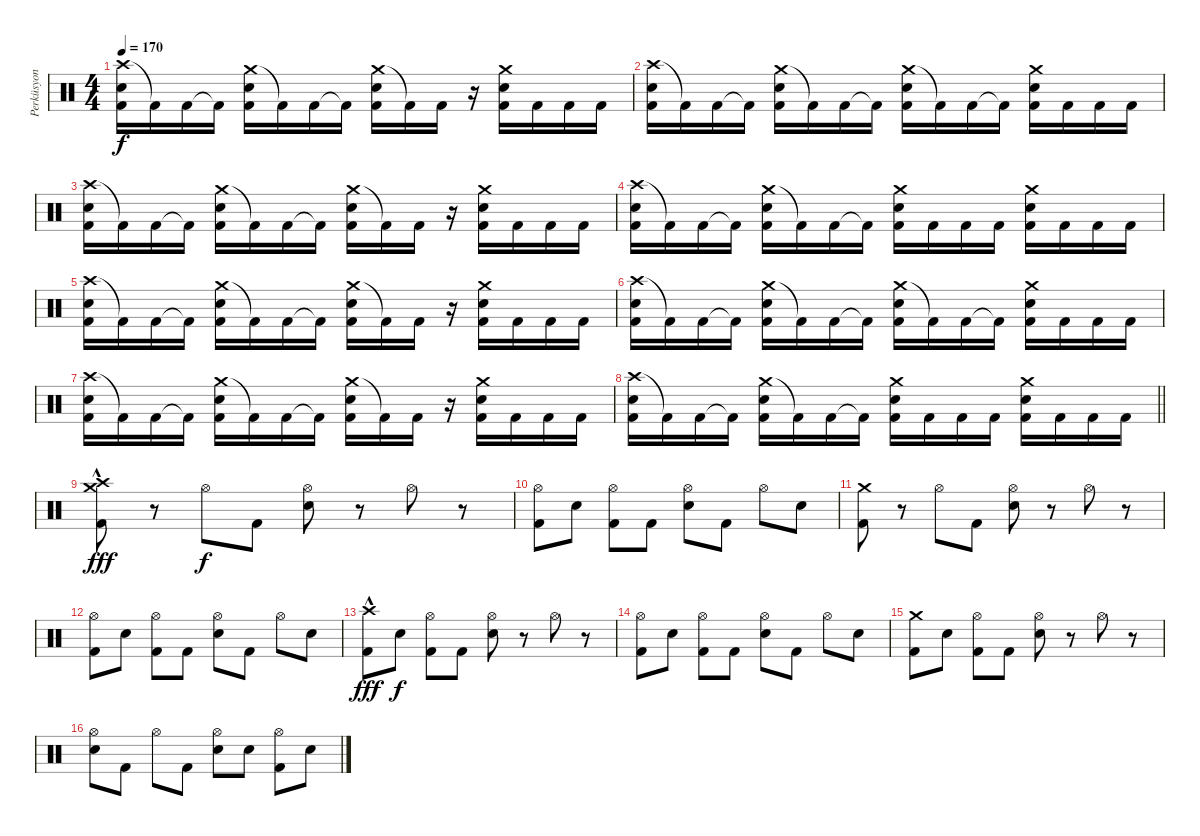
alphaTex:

\track ("Perküsyon" "Perküsyon") {instrument percussion}
\staff {score}
\articulation defaults
\ts (4 4)
\tempo 170
\clef neutral
\ks c
("Crash high (hit)" "Snare (hit) 2" "Kick (hit) 2").16{dy f} "Kick (hit) 2"{t}.16 "Kick (hit) 2".16 "Kick (hit) 2"{t}.16 ("Crash medium (hit)" "Snare (hit) 2" "Kick (hit) 2").16 "Kick (hit) 2"{t}.16 "Kick (hit) 2".16 "Kick (hit) 2"{t}.16 ("Crash medium (hit)" "Snare (hit) 2" "Kick (hit) 2").16 "Kick (hit) 2"{t}.16 "Kick (hit) 2".16 r.16 ("Crash medium (hit)" "Snare (hit) 2" "Kick (hit) 2").16 "Kick (hit) 2".16 "Kick (hit) 2".16 "Kick (hit) 2".16 |
("Crash high (hit)" "Snare (hit) 2" "Kick (hit) 2").16 "Kick (hit) 2"{t}.16 "Kick (hit) 2".16 "Kick (hit) 2"{t}.16 ("Crash medium (hit)" "Snare (hit) 2" "Kick (hit) 2").16 "Kick (hit) 2"{t}.16 "Kick (hit) 2".16 "Kick (hit) 2"{t}.16 ("Crash medium (hit)" "Snare (hit) 2" "Kick (hit) 2").16 "Kick (hit) 2"{t}.16 "Kick (hit) 2".16 "Kick (hit) 2"{t}.16 ("Crash medium (hit)" "Snare (hit) 2" "Kick (hit) 2").16 "Kick (hit) 2".16 "Kick (hit) 2".16 "Kick (hit) 2".16 |
("Crash high (hit)" "Snare (hit) 2" "Kick (hit) 2").16 "Kick (hit) 2"{t}.16 "Kick (hit) 2".16 "Kick (hit) 2"{t}.16 ("Crash medium (hit)" "Snare (hit) 2" "Kick (hit) 2").16 "Kick (hit) 2"{t}.16 "Kick (hit) 2".16 "Kick (hit) 2"{t}.16 ("Crash medium (hit)" "Snare (hit) 2" "Kick (hit) 2").16 "Kick (hit) 2"{t}.16 "Kick (hit) 2".16 r.16 ("Crash medium (hit)" "Snare (hit) 2" "Kick (hit) 2").16 "Kick (hit) 2".16 "Kick (hit) 2".16 "Kick (hit) 2".16 |
("Crash high (hit)" "Snare (hit) 2" "Kick (hit) 2").16 "Kick (hit) 2"{t}.16 "Kick (hit) 2".16 "Kick (hit) 2"{t}.16 ("Crash medium (hit)" "Snare (hit) 2" "Kick (hit) 2").16 "Kick (hit) 2"{t}.16 "Kick (hit) 2".16 "Kick (hit) 2"{t}.16 ("Crash medium (hit)" "Snare (hit) 2" "Kick (hit) 2").16 "Kick (hit) 2".16 "Kick (hit) 2".16 "Kick (hit) 2".16 ("Crash medium (hit)" "Snare (hit) 2" "Kick (hit) 2").16 "Kick (hit) 2".16 "Kick (hit) 2".16 "Kick (hit) 2".16 |
("Crash high (hit)" "Snare (hit) 2" "Kick (hit) 2").16 "Kick (hit) 2"{t}.16 "Kick (hit) 2".16 "Kick (hit) 2"{t}.16 ("Crash medium (hit)" "Snare (hit) 2" "Kick (hit) 2").16 "Kick (hit) 2"{t}.16 "Kick (hit) 2".16 "Kick (hit) 2"{t}.16 ("Crash medium (hit)" "Snare (hit) 2" "Kick (hit) 2").16 "Kick (hit) 2"{t}.16 "Kick (hit) 2".16 r.16 ("Crash medium (hit)" "Snare (hit) 2" "Kick (hit) 2").16 "Kick (hit) 2".16 "Kick (hit) 2".16 "Kick (hit) 2".16 |
("Crash high (hit)" "Snare (hit) 2" "Kick (hit) 2").16 "Kick (hit) 2"{t}.16 "Kick (hit) 2".16 "Kick (hit) 2"{t}.16 ("Crash medium (hit)" "Snare (hit) 2" "Kick (hit) 2").16 "Kick (hit) 2"{t}.16 "Kick (hit) 2".16 "Kick (hit) 2"{t}.16 ("Crash medium (hit)" "Snare (hit) 2" "Kick (hit) 2").16 "Kick (hit) 2"{t}.16 "Kick (hit) 2".16 "Kick (hit) 2"{t}.16 ("Crash medium (hit)" "Snare (hit) 2" "Kick (hit) 2").16 "Kick (hit) 2".16 "Kick (hit) 2".16 "Kick (hit) 2".16 |
("Crash high (hit)" "Snare (hit) 2" "Kick (hit) 2").16 "Kick (hit) 2"{t}.16 "Kick (hit) 2".16 "Kick (hit) 2"{t}.16 ("Crash medium (hit)" "Snare (hit) 2" "Kick (hit) 2").16 "Kick (hit) 2"{t}.16 "Kick (hit) 2".16 "Kick (hit) 2"{t}.16 ("Crash medium (hit)" "Snare (hit) 2" "Kick (hit) 2").16 "Kick (hit) 2"{t}.16 "Kick (hit) 2".16 r.16 ("Crash medium (hit)" "Snare (hit) 2" "Kick (hit) 2").16 "Kick (hit) 2".16 "Kick (hit) 2".16 "Kick (hit) 2".16 |
\barLineRight lightlight
("Crash high (hit)" "Snare (hit) 2" "Kick (hit) 2").16 "Kick (hit) 2"{t}.16 "Kick (hit) 2".16 "Kick (hit) 2"{t}.16 ("Crash medium (hit)" "Snare (hit) 2" "Kick (hit) 2").16 "Kick (hit) 2"{t}.16 "Kick (hit) 2".16 "Kick (hit) 2"{t}.16 ("Crash medium (hit)" "Snare (hit) 2" "Kick (hit) 2").16 "Kick (hit) 2".16 "Kick (hit) 2".16 "Kick (hit) 2".16 ("Crash medium (hit)" "Snare (hit) 2" "Kick (hit) 2").16 "Kick (hit) 2".16 "Kick (hit) 2".16 "Kick (hit) 2".16 |
\section ("" "")
("Crash high (hit)" "Crash medium (hit)" "Kick (hit) 2"{hac}).8{dy fff} r.8 "Hi-Hat (open)".8{dy f} "Kick (hit) 2".8 ("Hi-Hat (open)" "Snare (hit) 2").8 r.8 "Hi-Hat (open)".8 r.8 |
("Hi-Hat (open)" "Kick (hit) 2").8 "Snare (hit) 2".8 ("Hi-Hat (open)" "Kick (hit) 2").8 "Kick (hit) 2".8 ("Hi-Hat (open)" "Snare (hit) 2").8 "Kick (hit) 2".8 "Hi-Hat (open)".8 "Snare (hit) 2".8 |
("Crash medium (hit)" "Kick (hit) 2").8 r.8 "Hi-Hat (open)".8 "Kick (hit) 2".8 ("Hi-Hat (open)" "Snare (hit) 2").8 r.8 "Hi-Hat (open)".8 r.8 |
("Hi-Hat (open)" "Kick (hit) 2").8 "Snare (hit) 2".8 ("Hi-Hat (open)" "Kick (hit) 2").8 "Kick (hit) 2".8 ("Hi-Hat (open)" "Snare (hit) 2").8 "Kick (hit) 2".8 "Hi-Hat (open)".8 "Snare (hit) 2".8 |
("Crash high (hit)" "Kick (hit) 2"{hac}).8{dy fff} "Snare (hit) 2".8{dy f} ("Hi-Hat (open)" "Kick (hit) 2").8 "Kick (hit) 2".8 ("Hi-Hat (open)" "Snare (hit) 2").8 r.8 "Hi-Hat (open)".8 r.8 |
("Hi-Hat (open)" "Kick (hit) 2").8 "Snare (hit) 2".8 ("Hi-Hat (open)" "Kick (hit) 2").8 "Kick (hit) 2".8 ("Hi-Hat (open)" "Snare (hit) 2").8 "Kick (hit) 2".8 "Hi-Hat (open)".8 "Snare (hit) 2".8 |
("Crash medium (hit)" "Kick (hit) 2").8 "Snare (hit) 2".8 ("Hi-Hat (open)" "Kick (hit) 2").8 "Kick (hit) 2".8 ("Hi-Hat (open)" "Snare (hit) 2").8 r.8 "Hi-Hat (open)".8 r.8 |
("Hi-Hat (open)" "Snare (hit) 2").8 "Kick (hit) 2".8 "Hi-Hat (open)".8 "Kick (hit) 2".8 ("Hi-Hat (open)" "Snare (hit) 2").8 "Snare (hit) 2".8 ("Hi-Hat (open)" "Kick (hit) 2").8 "Snare (hit) 2".8
